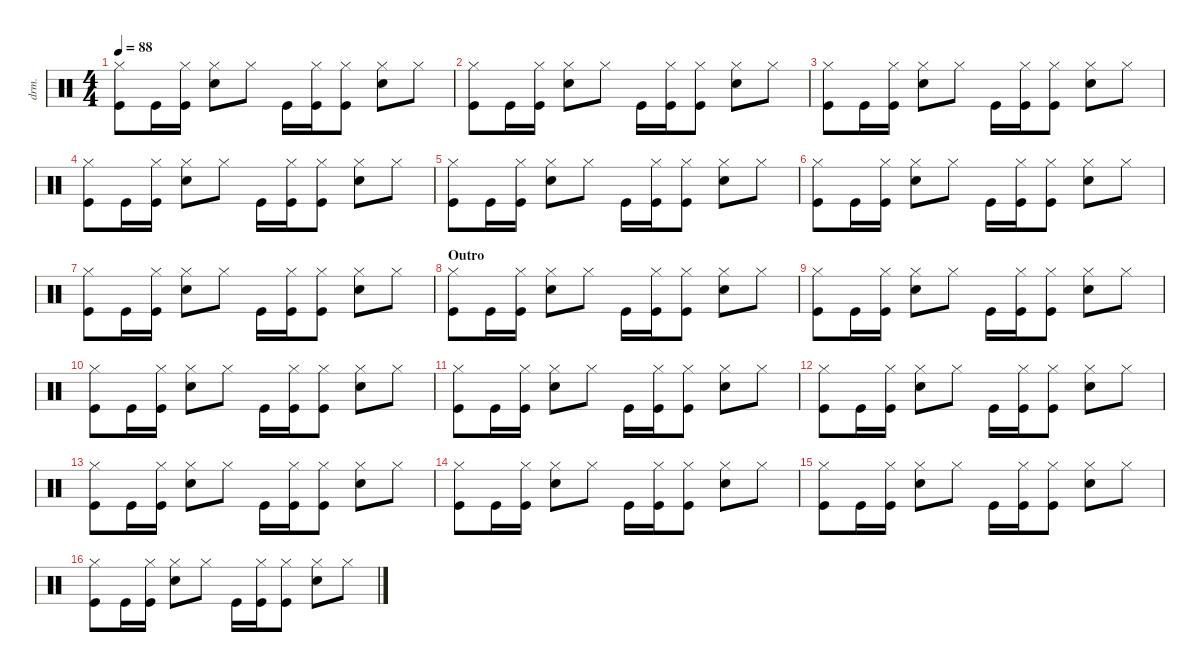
\defaultSystemsLayout 4
\hideDynamics
\bracketExtendMode nobrackets
\otherSystemsTrackNameOrientation horizontal
\track ("Drums" "drm.") {instrument percussion}
\staff {score}
\articulation defaults
\ts (4 4)
\tempo 88
\clef neutral
\ks c
("Hi-Hat (closed)" "Kick (hit)").8{dy f} "Kick (hit)".16 ("Hi-Hat (closed)" "Kick (hit)").16 ("Hi-Hat (closed)" "Snare (hit) 2").8 "Hi-Hat (closed)".8 "Kick (hit)".16 ("Hi-Hat (closed)" "Kick (hit)").16 ("Hi-Hat (closed)" "Kick (hit)").8 ("Hi-Hat (closed)" "Snare (hit) 2").8 "Hi-Hat (closed)".8 |
("Hi-Hat (closed)" "Kick (hit)").8 "Kick (hit)".16 ("Hi-Hat (closed)" "Kick (hit)").16 ("Hi-Hat (closed)" "Snare (hit) 2").8 "Hi-Hat (closed)".8 "Kick (hit)".16 ("Hi-Hat (closed)" "Kick (hit)").16 ("Hi-Hat (closed)" "Kick (hit)").8 ("Hi-Hat (closed)" "Snare (hit) 2").8 "Hi-Hat (closed)".8 |
("Hi-Hat (closed)" "Kick (hit)").8 "Kick (hit)".16 ("Hi-Hat (closed)" "Kick (hit)").16 ("Hi-Hat (closed)" "Snare (hit) 2").8 "Hi-Hat (closed)".8 "Kick (hit)".16 ("Hi-Hat (closed)" "Kick (hit)").16 ("Hi-Hat (closed)" "Kick (hit)").8 ("Hi-Hat (closed)" "Snare (hit) 2").8 "Hi-Hat (closed)".8 |
("Hi-Hat (closed)" "Kick (hit)").8 "Kick (hit)".16 ("Hi-Hat (closed)" "Kick (hit)").16 ("Hi-Hat (closed)" "Snare (hit) 2").8 "Hi-Hat (closed)".8 "Kick (hit)".16 ("Hi-Hat (closed)" "Kick (hit)").16 ("Hi-Hat (closed)" "Kick (hit)").8 ("Hi-Hat (closed)" "Snare (hit) 2").8 "Hi-Hat (closed)".8 |
("Hi-Hat (closed)" "Kick (hit)").8 "Kick (hit)".16 ("Hi-Hat (closed)" "Kick (hit)").16 ("Hi-Hat (closed)" "Snare (hit) 2").8 "Hi-Hat (closed)".8 "Kick (hit)".16 ("Hi-Hat (closed)" "Kick (hit)").16 ("Hi-Hat (closed)" "Kick (hit)").8 ("Hi-Hat (closed)" "Snare (hit) 2").8 "Hi-Hat (closed)".8 |
("Hi-Hat (closed)" "Kick (hit)").8 "Kick (hit)".16 ("Hi-Hat (closed)" "Kick (hit)").16 ("Hi-Hat (closed)" "Snare (hit) 2").8 "Hi-Hat (closed)".8 "Kick (hit)".16 ("Hi-Hat (closed)" "Kick (hit)").16 ("Hi-Hat (closed)" "Kick (hit)").8 ("Hi-Hat (closed)" "Snare (hit) 2").8 "Hi-Hat (closed)".8 |
("Hi-Hat (closed)" "Kick (hit)").8 "Kick (hit)".16 ("Hi-Hat (closed)" "Kick (hit)").16 ("Hi-Hat (closed)" "Snare (hit) 2").8 "Hi-Hat (closed)".8 "Kick (hit)".16 ("Hi-Hat (closed)" "Kick (hit)").16 ("Hi-Hat (closed)" "Kick (hit)").8 ("Hi-Hat (closed)" "Snare (hit) 2").8 "Hi-Hat (closed)".8 |
\section ("" "Outro")
("Hi-Hat (closed)" "Kick (hit)").8 "Kick (hit)".16 ("Hi-Hat (closed)" "Kick (hit)").16 ("Hi-Hat (closed)" "Snare (hit) 2").8 "Hi-Hat (closed)".8 "Kick (hit)".16 ("Hi-Hat (closed)" "Kick (hit)").16 ("Hi-Hat (closed)" "Kick (hit)").8 ("Hi-Hat (closed)" "Snare (hit) 2").8 "Hi-Hat (closed)".8 |
("Hi-Hat (closed)" "Kick (hit)").8 "Kick (hit)".16 ("Hi-Hat (closed)" "Kick (hit)").16 ("Hi-Hat (closed)" "Snare (hit) 2").8 "Hi-Hat (closed)".8 "Kick (hit)".16 ("Hi-Hat (closed)" "Kick (hit)").16 ("Hi-Hat (closed)" "Kick (hit)").8 ("Hi-Hat (closed)" "Snare (hit) 2").8 "Hi-Hat (closed)".8 |
("Hi-Hat (closed)" "Kick (hit)").8 "Kick (hit)".16 ("Hi-Hat (closed)" "Kick (hit)").16 ("Hi-Hat (closed)" "Snare (hit) 2").8 "Hi-Hat (closed)".8 "Kick (hit)".16 ("Hi-Hat (closed)" "Kick (hit)").16 ("Hi-Hat (closed)" "Kick (hit)").8 ("Hi-Hat (closed)" "Snare (hit) 2").8 "Hi-Hat (closed)".8 |
("Hi-Hat (closed)" "Kick (hit)").8 "Kick (hit)".16 ("Hi-Hat (closed)" "Kick (hit)").16 ("Hi-Hat (closed)" "Snare (hit) 2").8 "Hi-Hat (closed)".8 "Kick (hit)".16 ("Hi-Hat (closed)" "Kick (hit)").16 ("Hi-Hat (closed)" "Kick (hit)").8 ("Hi-Hat (closed)" "Snare (hit) 2").8 "Hi-Hat (closed)".8 |
("Hi-Hat (closed)" "Kick (hit)").8 "Kick (hit)".16 ("Hi-Hat (closed)" "Kick (hit)").16 ("Hi-Hat (closed)" "Snare (hit) 2").8 "Hi-Hat (closed)".8 "Kick (hit)".16 ("Hi-Hat (closed)" "Kick (hit)").16 ("Hi-Hat (closed)" "Kick (hit)").8 ("Hi-Hat (closed)" "Snare (hit) 2").8 "Hi-Hat (closed)".8 |
("Hi-Hat (closed)" "Kick (hit)").8 "Kick (hit)".16 ("Hi-Hat (closed)" "Kick (hit)").16 ("Hi-Hat (closed)" "Snare (hit) 2").8 "Hi-Hat (closed)".8 "Kick (hit)".16 ("Hi-Hat (closed)" "Kick (hit)").16 ("Hi-Hat (closed)" "Kick (hit)").8 ("Hi-Hat (closed)" "Snare (hit) 2").8 "Hi-Hat (closed)".8 |
("Hi-Hat (closed)" "Kick (hit)").8 "Kick (hit)".16 ("Hi-Hat (closed)" "Kick (hit)").16 ("Hi-Hat (closed)" "Snare (hit) 2").8 "Hi-Hat (closed)".8 "Kick (hit)".16 ("Hi-Hat (closed)" "Kick (hit)").16 ("Hi-Hat (closed)" "Kick (hit)").8 ("Hi-Hat (closed)" "Snare (hit) 2").8 "Hi-Hat (closed)".8 |
("Hi-Hat (closed)" "Kick (hit)").8 "Kick (hit)".16 ("Hi-Hat (closed)" "Kick (hit)").16 ("Hi-Hat (closed)" "Snare (hit) 2").8 "Hi-Hat (closed)".8 "Kick (hit)".16 ("Hi-Hat (closed)" "Kick (hit)").16 ("Hi-Hat (closed)" "Kick (hit)").8 ("Hi-Hat (closed)" "Snare (hit) 2").8 "Hi-Hat (closed)".8 |
("Hi-Hat (closed)" "Kick (hit)").8 "Kick (hit)".16 ("Hi-Hat (closed)" "Kick (hit)").16 ("Hi-Hat (closed)" "Snare (hit) 2").8 "Hi-Hat (closed)".8 "Kick (hit)".16 ("Hi-Hat (closed)" "Kick (hit)").16 ("Hi-Hat (closed)" "Kick (hit)").8 ("Hi-Hat (closed)" "Snare (hit) 2").8 "Hi-Hat (closed)".8
